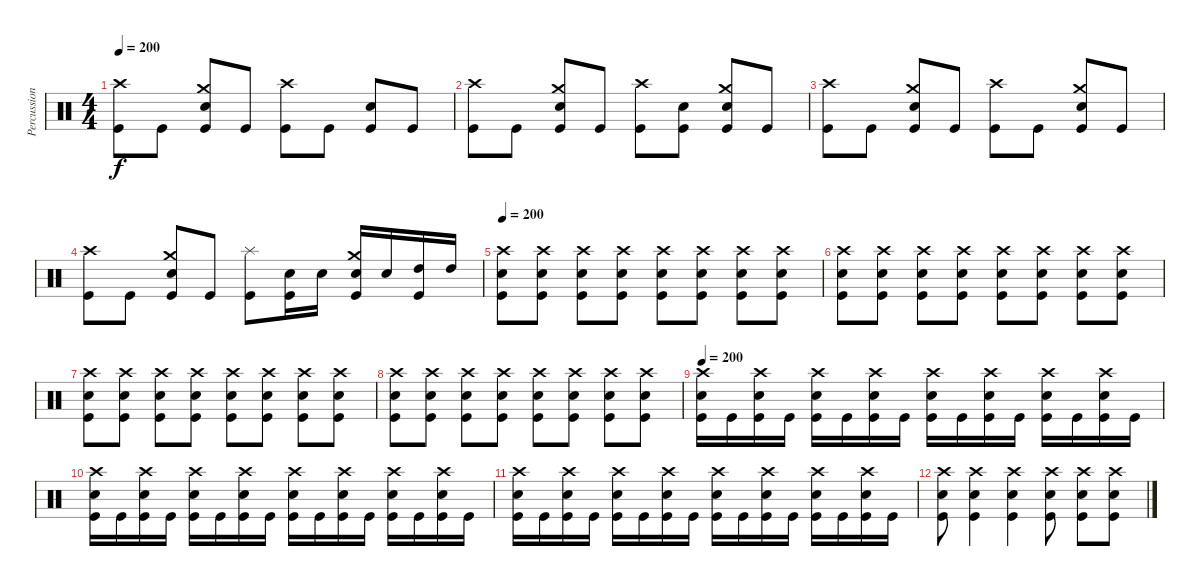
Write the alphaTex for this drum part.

\track ("Percussion" "Percussion") {instrument percussion}
\staff {score}
\articulation defaults
\ts (4 4)
\tempo 200
\clef neutral
\ks c
("Crash high (hit)" "Kick (hit)").8{dy f} "Kick (hit)".8 ("Crash medium (hit)" "Snare (hit) 2" "Kick (hit)").8 "Kick (hit)".8 ("Crash high (hit)" "Kick (hit)").8 "Kick (hit)".8 ("Snare (hit) 2" "Kick (hit)").8 "Kick (hit)".8 |
("Crash high (hit)" "Kick (hit)").8 "Kick (hit)".8 ("Crash medium (hit)" "Snare (hit) 2" "Kick (hit)").8 "Kick (hit)".8 ("Crash high (hit)" "Kick (hit)").8 ("Snare (hit) 2" "Kick (hit)").8 ("Crash medium (hit)" "Snare (hit) 2" "Kick (hit)").8 "Kick (hit)".8 |
("Crash high (hit)" "Kick (hit)").8 "Kick (hit)".8 ("Crash medium (hit)" "Snare (hit) 2" "Kick (hit)").8 "Kick (hit)".8 ("Crash high (hit)" "Kick (hit)").8 "Kick (hit)".8 ("Crash medium (hit)" "Snare (hit) 2" "Kick (hit)").8 "Kick (hit)".8 |
("Crash high (hit)" "Kick (hit)").8 "Kick (hit)".8 ("Crash medium (hit)" "Snare (hit) 2" "Kick (hit)").8 "Kick (hit)".8 ("Splash (hit)" "Kick (hit)").8 ("Snare (hit) 2" "Kick (hit)").16 "Snare (hit) 2".16 ("Crash medium (hit)" "Snare (hit) 2" "Kick (hit)").16 "Snare (hit) 2".16 ("High Tom (hit)" "Kick (hit)").16 "High Tom (hit)".16 |
\tempo 200
("Crash high (hit)" "Snare (hit) 2" "Kick (hit)").8 ("Crash high (hit)" "Snare (hit) 2" "Kick (hit)").8 ("Crash high (hit)" "Snare (hit) 2" "Kick (hit)").8 ("Crash high (hit)" "Snare (hit) 2" "Kick (hit)").8 ("Crash high (hit)" "Snare (hit) 2" "Kick (hit)").8 ("Crash high (hit)" "Snare (hit) 2" "Kick (hit)").8 ("Crash high (hit)" "Snare (hit) 2" "Kick (hit)").8 ("Crash high (hit)" "Snare (hit) 2" "Kick (hit)").8 |
("Crash high (hit)" "Snare (hit) 2" "Kick (hit)").8 ("Crash high (hit)" "Snare (hit) 2" "Kick (hit)").8 ("Crash high (hit)" "Snare (hit) 2" "Kick (hit)").8 ("Crash high (hit)" "Snare (hit) 2" "Kick (hit)").8 ("Crash high (hit)" "Snare (hit) 2" "Kick (hit)").8 ("Crash high (hit)" "Snare (hit) 2" "Kick (hit)").8 ("Crash high (hit)" "Snare (hit) 2" "Kick (hit)").8 ("Crash high (hit)" "Snare (hit) 2" "Kick (hit)").8 |
("Crash high (hit)" "Snare (hit) 2" "Kick (hit)").8 ("Crash high (hit)" "Snare (hit) 2" "Kick (hit)").8 ("Crash high (hit)" "Snare (hit) 2" "Kick (hit)").8 ("Crash high (hit)" "Snare (hit) 2" "Kick (hit)").8 ("Crash high (hit)" "Snare (hit) 2" "Kick (hit)").8 ("Crash high (hit)" "Snare (hit) 2" "Kick (hit)").8 ("Crash high (hit)" "Snare (hit) 2" "Kick (hit)").8 ("Crash high (hit)" "Snare (hit) 2" "Kick (hit)").8 |
("Crash high (hit)" "Snare (hit) 2" "Kick (hit)").8 ("Crash high (hit)" "Snare (hit) 2" "Kick (hit)").8 ("Crash high (hit)" "Snare (hit) 2" "Kick (hit)").8 ("Crash high (hit)" "Snare (hit) 2" "Kick (hit)").8 ("Crash high (hit)" "Snare (hit) 2" "Kick (hit)").8 ("Crash high (hit)" "Snare (hit) 2" "Kick (hit)").8 ("Crash high (hit)" "Snare (hit) 2" "Kick (hit)").8 ("Crash high (hit)" "Snare (hit) 2" "Kick (hit)").8 |
\tempo 200
("Crash high (hit)" "Snare (hit) 2" "Kick (hit)").16 "Kick (hit)".16 ("Crash high (hit)" "Snare (hit) 2" "Kick (hit)").16 "Kick (hit)".16 ("Crash high (hit)" "Snare (hit) 2" "Kick (hit)").16 "Kick (hit)".16 ("Crash high (hit)" "Snare (hit) 2" "Kick (hit)").16 "Kick (hit)".16 ("Crash high (hit)" "Snare (hit) 2" "Kick (hit)").16 "Kick (hit)".16 ("Crash high (hit)" "Snare (hit) 2" "Kick (hit)").16 "Kick (hit)".16 ("Crash high (hit)" "Snare (hit) 2" "Kick (hit)").16 "Kick (hit)".16 ("Crash high (hit)" "Snare (hit) 2" "Kick (hit)").16 "Kick (hit)".16 |
("Crash high (hit)" "Snare (hit) 2" "Kick (hit)").16 "Kick (hit)".16 ("Crash high (hit)" "Snare (hit) 2" "Kick (hit)").16 "Kick (hit)".16 ("Crash high (hit)" "Snare (hit) 2" "Kick (hit)").16 "Kick (hit)".16 ("Crash high (hit)" "Snare (hit) 2" "Kick (hit)").16 "Kick (hit)".16 ("Crash high (hit)" "Snare (hit) 2" "Kick (hit)").16 "Kick (hit)".16 ("Crash high (hit)" "Snare (hit) 2" "Kick (hit)").16 "Kick (hit)".16 ("Crash high (hit)" "Snare (hit) 2" "Kick (hit)").16 "Kick (hit)".16 ("Crash high (hit)" "Snare (hit) 2" "Kick (hit)").16 "Kick (hit)".16 |
("Crash high (hit)" "Snare (hit) 2" "Kick (hit)").16 "Kick (hit)".16 ("Crash high (hit)" "Snare (hit) 2" "Kick (hit)").16 "Kick (hit)".16 ("Crash high (hit)" "Snare (hit) 2" "Kick (hit)").16 "Kick (hit)".16 ("Crash high (hit)" "Snare (hit) 2" "Kick (hit)").16 "Kick (hit)".16 ("Crash high (hit)" "Snare (hit) 2" "Kick (hit)").16 "Kick (hit)".16 ("Crash high (hit)" "Snare (hit) 2" "Kick (hit)").16 "Kick (hit)".16 ("Crash high (hit)" "Snare (hit) 2" "Kick (hit)").16 "Kick (hit)".16 ("Crash high (hit)" "Snare (hit) 2" "Kick (hit)").16 "Kick (hit)".16 |
("Crash high (hit)" "Snare (hit) 2" "Kick (hit)").8 ("Crash high (hit)" "Snare (hit) 2" "Kick (hit)").4 ("Crash high (hit)" "Snare (hit) 2" "Kick (hit)").4 ("Crash high (hit)" "Snare (hit) 2" "Kick (hit)").8 ("Crash high (hit)" "Snare (hit) 2" "Kick (hit)").8 ("Crash high (hit)" "Snare (hit) 2" "Kick (hit)").8
